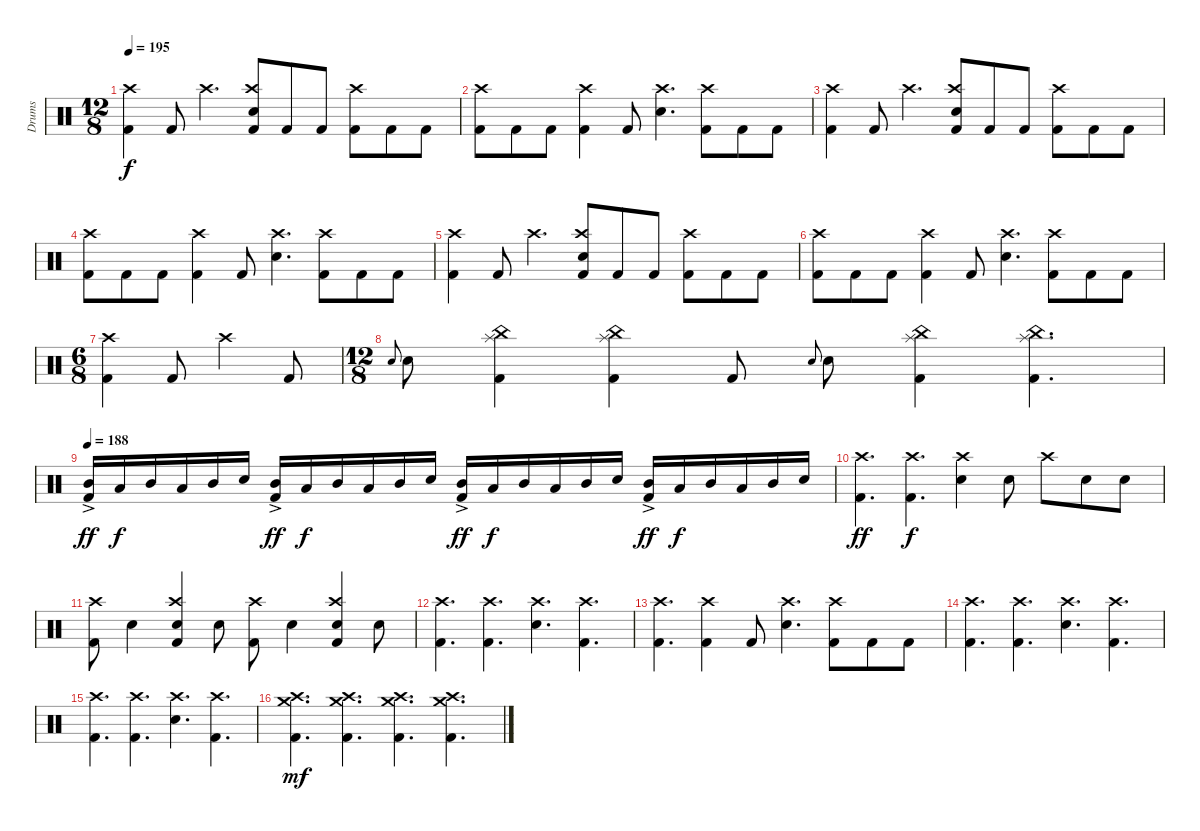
\track ("Drums" "Drums") {instrument percussion}
\staff {score}
\articulation defaults
\ts (12 8)
\tempo 195
\clef neutral
\ks c
("Kick (hit) 2" "Crash high (hit)").4{dy f} "Kick (hit) 2".8 "Crash high (hit)".4{d} ("Kick (hit) 2" "Electric Snare (hit)" "Crash high (hit)").8 "Kick (hit) 2".8 "Kick (hit) 2".8 ("Kick (hit) 2" "Crash high (hit)").8 "Kick (hit) 2".8 "Kick (hit) 2".8 |
("Kick (hit) 2" "Crash high (hit)").8 "Kick (hit) 2".8 "Kick (hit) 2".8 ("Kick (hit) 2" "Crash high (hit)").4 "Kick (hit) 2".8 ("Electric Snare (hit)" "Crash high (hit)").4{d} ("Kick (hit) 2" "Crash high (hit)").8 "Kick (hit) 2".8 "Kick (hit) 2".8 |
("Kick (hit) 2" "Crash high (hit)").4 "Kick (hit) 2".8 "Crash high (hit)".4{d} ("Kick (hit) 2" "Electric Snare (hit)" "Crash high (hit)").8 "Kick (hit) 2".8 "Kick (hit) 2".8 ("Kick (hit) 2" "Crash high (hit)").8 "Kick (hit) 2".8 "Kick (hit) 2".8 |
("Kick (hit) 2" "Crash high (hit)").8 "Kick (hit) 2".8 "Kick (hit) 2".8 ("Kick (hit) 2" "Crash high (hit)").4 "Kick (hit) 2".8 ("Electric Snare (hit)" "Crash high (hit)").4{d} ("Kick (hit) 2" "Crash high (hit)").8 "Kick (hit) 2".8 "Kick (hit) 2".8 |
("Kick (hit) 2" "Crash high (hit)").4 "Kick (hit) 2".8 "Crash high (hit)".4{d} ("Kick (hit) 2" "Electric Snare (hit)" "Crash high (hit)").8 "Kick (hit) 2".8 "Kick (hit) 2".8 ("Kick (hit) 2" "Crash high (hit)").8 "Kick (hit) 2".8 "Kick (hit) 2".8 |
("Kick (hit) 2" "Crash high (hit)").8 "Kick (hit) 2".8 "Kick (hit) 2".8 ("Kick (hit) 2" "Crash high (hit)").4 "Kick (hit) 2".8 ("Electric Snare (hit)" "Crash high (hit)").4{d} ("Kick (hit) 2" "Crash high (hit)").8 "Kick (hit) 2".8 "Kick (hit) 2".8 |
\ts (6 8)
("Kick (hit) 2" "Crash high (hit)").4 "Kick (hit) 2".8 "Crash high (hit)".4 "Kick (hit) 2".8 |
\ts (12 8)
"Electric Snare (hit)".8{gr onbeat} "Electric Snare (hit)".8 ("Kick (hit) 2" "Splash (hit)" "China (hit)").4 ("Kick (hit) 2" "Splash (hit)" "China (hit)").4 "Kick (hit) 2".8 "Electric Snare (hit)".8{gr onbeat} "Electric Snare (hit)".8 ("Kick (hit) 2" "Splash (hit)" "China (hit)").4 ("Kick (hit) 2" "Splash (hit)" "China (hit)").4{d} |
\tempo 188
("Kick (hit) 2" "Mid Tom (hit)"{ac}).16{dy ff} "Low Tom (hit)".16{dy f} "Mid Tom (hit)".16 "Low Tom (hit)".16 "Mid Tom (hit)".16 "Electric Snare (hit)".16 ("Kick (hit) 2" "Mid Tom (hit)"{ac}).16{dy ff} "Low Tom (hit)".16{dy f} "Mid Tom (hit)".16 "Low Tom (hit)".16 "Mid Tom (hit)".16 "Electric Snare (hit)".16 ("Kick (hit) 2" "Mid Tom (hit)"{ac}).16{dy ff} "Low Tom (hit)".16{dy f} "Mid Tom (hit)".16 "Low Tom (hit)".16 "Mid Tom (hit)".16 "Electric Snare (hit)".16 ("Kick (hit) 2" "Mid Tom (hit)"{ac}).16{dy ff} "Low Tom (hit)".16{dy f} "Mid Tom (hit)".16 "Low Tom (hit)".16 "Mid Tom (hit)".16 "Electric Snare (hit)".16 |
("Kick (hit) 2" "Crash high (hit)").4{d dy ff} ("Kick (hit) 2" "Crash high (hit)").4{d dy f} ("Electric Snare (hit)" "Crash high (hit)").4 "Electric Snare (hit)".8 "Crash high (hit)".8 "Electric Snare (hit)".8 "Electric Snare (hit)".8 |
("Kick (hit) 2" "Crash high (hit)").8 "Electric Snare (hit)".4 ("Kick (hit) 2" "Electric Snare (hit)" "Crash high (hit)").4 "Electric Snare (hit)".8 ("Kick (hit) 2" "Crash high (hit)").8 "Electric Snare (hit)".4 ("Kick (hit) 2" "Electric Snare (hit)" "Crash high (hit)").4 "Electric Snare (hit)".8 |
("Kick (hit) 2" "Crash high (hit)").4{d} ("Kick (hit) 2" "Crash high (hit)").4{d} ("Electric Snare (hit)" "Crash high (hit)").4{d} ("Kick (hit) 2" "Crash high (hit)").4{d} |
("Kick (hit) 2" "Crash high (hit)").4{d} ("Kick (hit) 2" "Crash high (hit)").4 "Kick (hit) 2".8 ("Electric Snare (hit)" "Crash high (hit)").4{d} ("Kick (hit) 2" "Crash high (hit)").8 "Kick (hit) 2".8 "Kick (hit) 2".8 |
("Kick (hit) 2" "Crash high (hit)").4{d} ("Kick (hit) 2" "Crash high (hit)").4{d} ("Electric Snare (hit)" "Crash high (hit)").4{d} ("Kick (hit) 2" "Crash high (hit)").4{d} |
("Kick (hit) 2" "Crash high (hit)").4{d} ("Kick (hit) 2" "Crash high (hit)").4{d} ("Electric Snare (hit)" "Crash high (hit)").4{d} ("Kick (hit) 2" "Crash high (hit)").4{d} |
("Kick (hit) 2" "Crash high (hit)" "Crash medium (hit)").4{d dy mf} ("Kick (hit) 2" "Crash high (hit)" "Crash medium (hit)").4{d} ("Kick (hit) 2" "Crash high (hit)" "Crash medium (hit)").4{d} ("Kick (hit) 2" "Crash high (hit)" "Crash medium (hit)").4{d}
